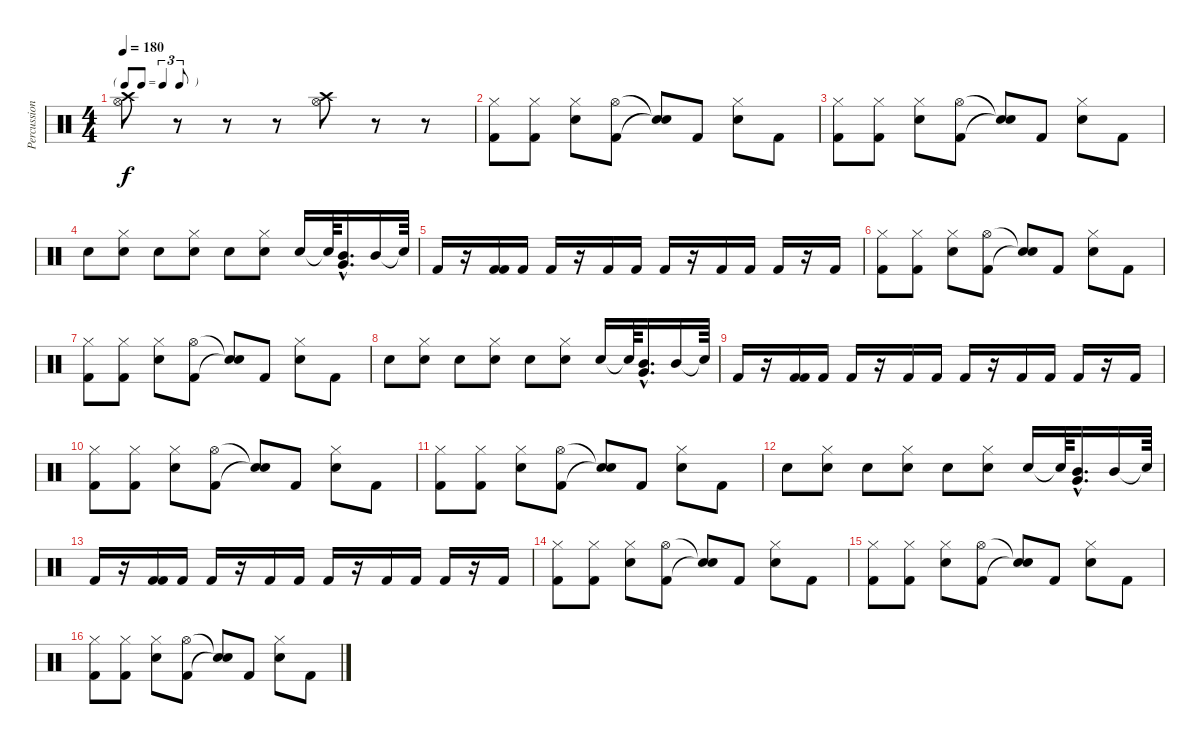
\track ("Percussions" "Percussion") {instrument percussion}
\staff {score}
\articulation defaults
\ts (4 4)
\tf triplet8th
\tempo 180
\clef neutral
\ks c
("Hi-Hat (open)" "Crash high (hit)").8{dy f} r.8 r.8 r.8 ("Hi-Hat (open)" "Crash high (hit)").8 r.8 r.8 |
("Hi-Hat (closed)" "Kick (hit) 2").8 ("Hi-Hat (closed)" "Kick (hit) 2").8 ("Hi-Hat (closed)" "Electric Snare (hit)").8 ("Hi-Hat (open)" "Kick (hit) 2").8 ("Snare (hit)"{t} "Snare (hit)"{t}).8 "Kick (hit) 2".8 ("Hi-Hat (closed)" "Electric Snare (hit)").8 "Kick (hit) 2".8 |
("Hi-Hat (closed)" "Kick (hit) 2").8 ("Hi-Hat (closed)" "Kick (hit) 2").8 ("Hi-Hat (closed)" "Electric Snare (hit)").8 ("Hi-Hat (open)" "Kick (hit) 2").8 ("Snare (hit)"{t} "Snare (hit)"{t}).8 "Kick (hit) 2".8 ("Hi-Hat (closed)" "Electric Snare (hit)").8 "Kick (hit) 2".8 |
"Snare (hit) 2".8 ("Hi-Hat (closed)" "Snare (hit) 2").8 "Snare (hit) 2".8 ("Hi-Hat (closed)" "Snare (hit) 2").8 "Snare (hit) 2".8 ("Hi-Hat (closed)" "Snare (hit) 2").8 "Snare (hit) 2".16 "Snare (hit)"{t}.64 ("Mid Tom (hit)"{hac} "Very Low Tom (hit)"{hac}).16{d} "Mid Tom (hit)".16 "Snare (hit)"{t}.64 |
"Kick (hit) 2".16 r.16 ("Kick (hit) 2" "Kick (hit) 2").16 "Kick (hit) 2".16 "Kick (hit) 2".16 r.16 "Kick (hit) 2".16 "Kick (hit) 2".16 "Kick (hit) 2".16 r.16 "Kick (hit) 2".16 "Kick (hit) 2".16 "Kick (hit) 2".16 r.16 "Kick (hit) 2".16 |
("Hi-Hat (closed)" "Kick (hit) 2").8 ("Hi-Hat (closed)" "Kick (hit) 2").8 ("Hi-Hat (closed)" "Electric Snare (hit)").8 ("Hi-Hat (open)" "Kick (hit) 2").8 ("Snare (hit)"{t} "Snare (hit)"{t}).8 "Kick (hit) 2".8 ("Hi-Hat (closed)" "Electric Snare (hit)").8 "Kick (hit) 2".8 |
("Hi-Hat (closed)" "Kick (hit) 2").8 ("Hi-Hat (closed)" "Kick (hit) 2").8 ("Hi-Hat (closed)" "Electric Snare (hit)").8 ("Hi-Hat (open)" "Kick (hit) 2").8 ("Snare (hit)"{t} "Snare (hit)"{t}).8 "Kick (hit) 2".8 ("Hi-Hat (closed)" "Electric Snare (hit)").8 "Kick (hit) 2".8 |
"Snare (hit) 2".8 ("Hi-Hat (closed)" "Snare (hit) 2").8 "Snare (hit) 2".8 ("Hi-Hat (closed)" "Snare (hit) 2").8 "Snare (hit) 2".8 ("Hi-Hat (closed)" "Snare (hit) 2").8 "Snare (hit) 2".16 "Snare (hit)"{t}.64 ("Mid Tom (hit)"{hac} "Very Low Tom (hit)"{hac}).16{d} "Mid Tom (hit)".16 "Snare (hit)"{t}.64 |
"Kick (hit) 2".16 r.16 ("Kick (hit) 2" "Kick (hit) 2").16 "Kick (hit) 2".16 "Kick (hit) 2".16 r.16 "Kick (hit) 2".16 "Kick (hit) 2".16 "Kick (hit) 2".16 r.16 "Kick (hit) 2".16 "Kick (hit) 2".16 "Kick (hit) 2".16 r.16 "Kick (hit) 2".16 |
("Hi-Hat (closed)" "Kick (hit) 2").8 ("Hi-Hat (closed)" "Kick (hit) 2").8 ("Hi-Hat (closed)" "Electric Snare (hit)").8 ("Hi-Hat (open)" "Kick (hit) 2").8 ("Snare (hit)"{t} "Snare (hit)"{t}).8 "Kick (hit) 2".8 ("Hi-Hat (closed)" "Electric Snare (hit)").8 "Kick (hit) 2".8 |
("Hi-Hat (closed)" "Kick (hit) 2").8 ("Hi-Hat (closed)" "Kick (hit) 2").8 ("Hi-Hat (closed)" "Electric Snare (hit)").8 ("Hi-Hat (open)" "Kick (hit) 2").8 ("Snare (hit)"{t} "Snare (hit)"{t}).8 "Kick (hit) 2".8 ("Hi-Hat (closed)" "Electric Snare (hit)").8 "Kick (hit) 2".8 |
"Snare (hit) 2".8 ("Hi-Hat (closed)" "Snare (hit) 2").8 "Snare (hit) 2".8 ("Hi-Hat (closed)" "Snare (hit) 2").8 "Snare (hit) 2".8 ("Hi-Hat (closed)" "Snare (hit) 2").8 "Snare (hit) 2".16 "Snare (hit)"{t}.64 ("Mid Tom (hit)"{hac} "Very Low Tom (hit)"{hac}).16{d} "Mid Tom (hit)".16 "Snare (hit)"{t}.64 |
"Kick (hit) 2".16 r.16 ("Kick (hit) 2" "Kick (hit) 2").16 "Kick (hit) 2".16 "Kick (hit) 2".16 r.16 "Kick (hit) 2".16 "Kick (hit) 2".16 "Kick (hit) 2".16 r.16 "Kick (hit) 2".16 "Kick (hit) 2".16 "Kick (hit) 2".16 r.16 "Kick (hit) 2".16 |
("Hi-Hat (closed)" "Kick (hit) 2").8 ("Hi-Hat (closed)" "Kick (hit) 2").8 ("Hi-Hat (closed)" "Electric Snare (hit)").8 ("Hi-Hat (open)" "Kick (hit) 2").8 ("Snare (hit)"{t} "Snare (hit)"{t}).8 "Kick (hit) 2".8 ("Hi-Hat (closed)" "Electric Snare (hit)").8 "Kick (hit) 2".8 |
("Hi-Hat (closed)" "Kick (hit) 2").8 ("Hi-Hat (closed)" "Kick (hit) 2").8 ("Hi-Hat (closed)" "Electric Snare (hit)").8 ("Hi-Hat (open)" "Kick (hit) 2").8 ("Snare (hit)"{t} "Snare (hit)"{t}).8 "Kick (hit) 2".8 ("Hi-Hat (closed)" "Electric Snare (hit)").8 "Kick (hit) 2".8 |
("Hi-Hat (closed)" "Kick (hit) 2").8 ("Hi-Hat (closed)" "Kick (hit) 2").8 ("Hi-Hat (closed)" "Electric Snare (hit)").8 ("Hi-Hat (open)" "Kick (hit) 2").8 ("Snare (hit)"{t} "Snare (hit)"{t}).8 "Kick (hit) 2".8 ("Hi-Hat (closed)" "Electric Snare (hit)").8 "Kick (hit) 2".8
